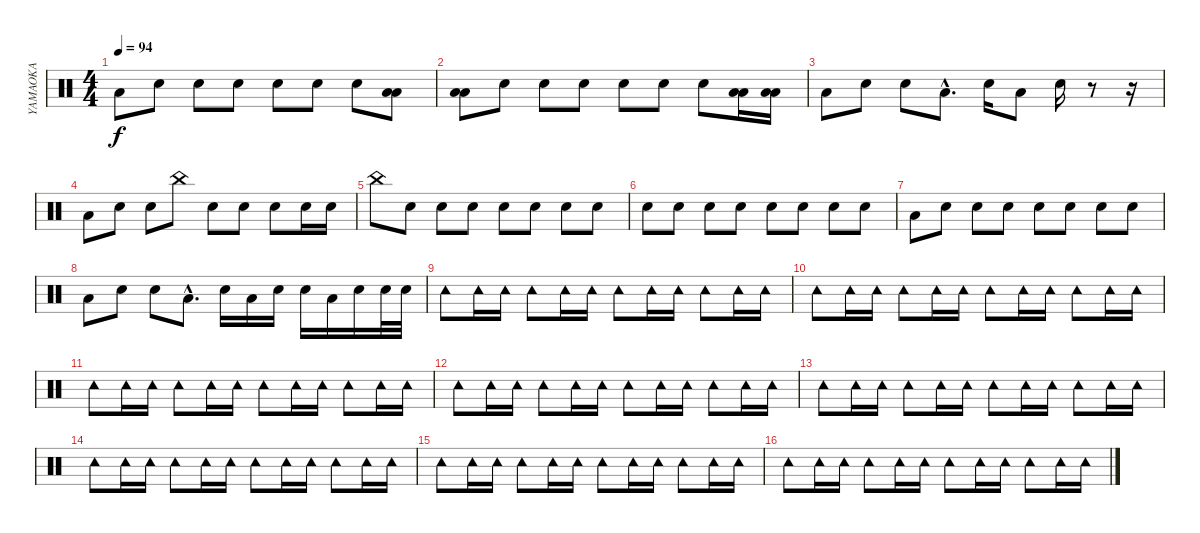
\track ("YAMAOKA" "YAMAOKA") {instrument percussion}
\staff {score}
\articulation defaults
\ts (4 4)
\tempo 94
\clef neutral
\ks c "Low Floor Tom (hit)"{x}.8{dy f} "Snare (hit)"{x}.8 "Electric Snare (hit)".8 "Snare (hit)"{x}.8 "Snare (hit)"{x}.8 "Snare (hit)"{x}.8 "Electric Snare (hit)"{x}.8
("Low Tom (hit)" "Low Floor Tom (hit)").8{volume 16} |
("Low Tom (hit)" "Low Floor Tom (hit)").8 "Snare (hit)"{x}.8{volume 14} "Electric Snare (hit)".8 "Snare (hit)"{x}.8 "Snare (hit)"{x}.8 "Snare (hit)"{x}.8 "Electric Snare (hit)".8 ("Low Tom (hit)" "Low Floor Tom (hit)").16 ("Low Tom (hit)" "Low Floor Tom (hit)").16 |
"Low Floor Tom (hit)".8 "Snare (hit)"{x}.8 "Electric Snare (hit)".8 "Low Floor Tom (hit)"{hac}.8{d} "Electric Snare (hit)".16 "Low Floor Tom (hit)".8 "Electric Snare (hit)".16 r.8 r.16 |
"Low Floor Tom (hit)"{x}.8 "Snare (hit)"{x}.8 "Electric Snare (hit)".8 "China (hit)".8{volume 12} "Snare (hit)"{x}.8{volume 14} "Electric Snare (hit)"{x}.8 "Electric Snare (hit)".8 "Electric Snare (hit)".16 "Electric Snare (hit)".16 |
"China (hit)".8{volume 12} "Snare (hit)"{x}.8{volume 14} "Electric Snare (hit)".8 "Snare (hit)"{x}.8 "Snare (hit)"{x}.8 "Snare (hit)"{x}.8 "Electric Snare (hit)".8 "Snare (hit) 2"{x}.8 |
"Snare (hit) 2"{x}.8 "Snare (hit)"{x}.8 "Electric Snare (hit)".8 "Snare (hit)"{x}.8 "Snare (hit)"{x}.8 "Snare (hit)"{x}.8 "Electric Snare (hit)".8 "Snare (hit)"{x}.8 |
"Low Floor Tom (hit)"{x}.8 "Snare (hit)"{x}.8 "Electric Snare (hit)".8 "Snare (hit)"{x}.8 "Snare (hit)"{x}.8 "Snare (hit)"{x}.8 "Electric Snare (hit)".8 "Snare (hit)"{x}.8 |
"Low Floor Tom (hit)".8 "Snare (hit)"{x}.8 "Electric Snare (hit)".8 "Low Floor Tom (hit)"{hac}.8{d volume 16} "Electric Snare (hit)".16 "Low Floor Tom (hit)".16 "Electric Snare (hit)".16 "Electric Snare (hit)".16 "Low Floor Tom (hit)".16 "Electric Snare (hit)".16 "Electric Snare (hit)".32 "Electric Snare (hit)".32 |
"Tambourine (hit)".8{volume 14} "Tambourine (hit)".16 "Tambourine (hit)".16 "Tambourine (hit)".8 "Tambourine (hit)".16 "Tambourine (hit)".16 "Tambourine (hit)".8 "Tambourine (hit)".16 "Tambourine (hit)".16 "Tambourine (hit)".8 "Tambourine (hit)".16 "Tambourine (hit)".16 |
"Tambourine (hit)".8 "Tambourine (hit)".16 "Tambourine (hit)".16 "Tambourine (hit)".8 "Tambourine (hit)".16 "Tambourine (hit)".16 "Tambourine (hit)".8 "Tambourine (hit)".16 "Tambourine (hit)".16 "Tambourine (hit)".8 "Tambourine (hit)".16 "Tambourine (hit)".16 |
"Tambourine (hit)".8 "Tambourine (hit)".16 "Tambourine (hit)".16 "Tambourine (hit)".8 "Tambourine (hit)".16 "Tambourine (hit)".16 "Tambourine (hit)".8 "Tambourine (hit)".16 "Tambourine (hit)".16 "Tambourine (hit)".8 "Tambourine (hit)".16 "Tambourine (hit)".16 |
"Tambourine (hit)".8 "Tambourine (hit)".16 "Tambourine (hit)".16 "Tambourine (hit)".8 "Tambourine (hit)".16 "Tambourine (hit)".16 "Tambourine (hit)".8 "Tambourine (hit)".16 "Tambourine (hit)".16 "Tambourine (hit)".8 "Tambourine (hit)".16 "Tambourine (hit)".16 |
"Tambourine (hit)".8 "Tambourine (hit)".16 "Tambourine (hit)".16 "Tambourine (hit)".8 "Tambourine (hit)".16 "Tambourine (hit)".16 "Tambourine (hit)".8 "Tambourine (hit)".16 "Tambourine (hit)".16 "Tambourine (hit)".8 "Tambourine (hit)".16 "Tambourine (hit)".16 |
"Tambourine (hit)".8 "Tambourine (hit)".16 "Tambourine (hit)".16 "Tambourine (hit)".8 "Tambourine (hit)".16 "Tambourine (hit)".16 "Tambourine (hit)".8 "Tambourine (hit)".16 "Tambourine (hit)".16 "Tambourine (hit)".8 "Tambourine (hit)".16 "Tambourine (hit)".16 |
"Tambourine (hit)".8 "Tambourine (hit)".16 "Tambourine (hit)".16 "Tambourine (hit)".8 "Tambourine (hit)".16 "Tambourine (hit)".16 "Tambourine (hit)".8 "Tambourine (hit)".16 "Tambourine (hit)".16 "Tambourine (hit)".8 "Tambourine (hit)".16 "Tambourine (hit)".16 |
"Tambourine (hit)".8 "Tambourine (hit)".16 "Tambourine (hit)".16 "Tambourine (hit)".8 "Tambourine (hit)".16 "Tambourine (hit)".16 "Tambourine (hit)".8 "Tambourine (hit)".16 "Tambourine (hit)".16 "Tambourine (hit)".8 "Tambourine (hit)".16 "Tambourine (hit)".16
